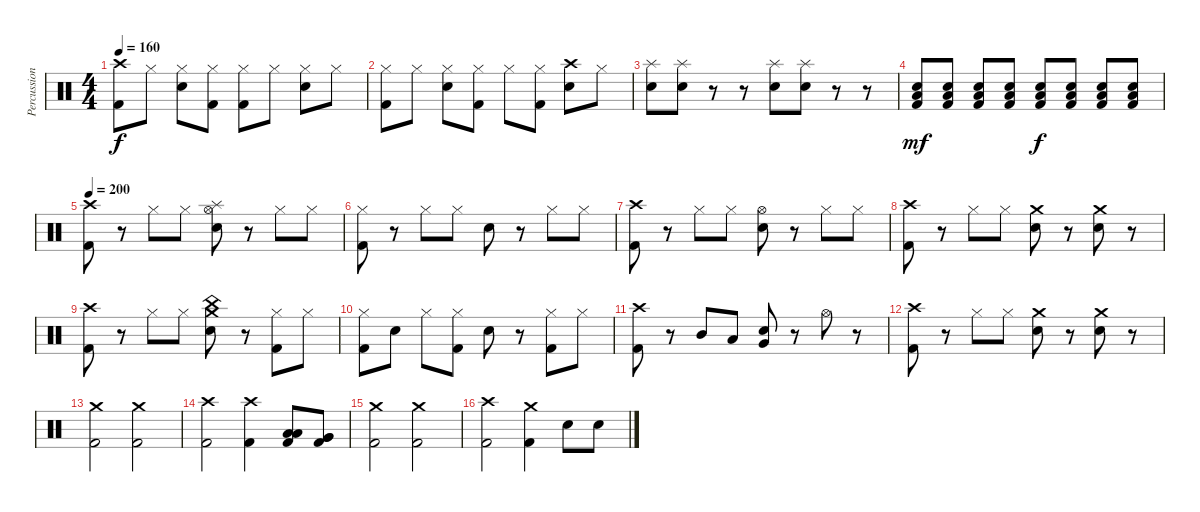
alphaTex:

\track ("Percussion" "Percussion") {instrument percussion}
\staff {score}
\articulation defaults
\ts (4 4)
\tempo 160
\clef neutral
\ks c
("Crash high (hit)" "Kick (hit) 2").8{dy f} "Hi-Hat (closed)".8 ("Hi-Hat (closed)" "Snare (hit) 2").8 ("Hi-Hat (closed)" "Kick (hit) 2").8 ("Hi-Hat (closed)" "Kick (hit) 2").8 "Hi-Hat (closed)".8 ("Hi-Hat (closed)" "Snare (hit) 2").8 "Hi-Hat (closed)".8 |
("Hi-Hat (closed)" "Kick (hit) 2").8 "Hi-Hat (closed)".8 ("Hi-Hat (closed)" "Snare (hit) 2").8 ("Hi-Hat (closed)" "Kick (hit) 2").8 "Hi-Hat (closed)".8 ("Hi-Hat (closed)" "Kick (hit) 2").8 ("Crash high (hit)" "Snare (hit) 2").8 "Hi-Hat (closed)".8 |
("Splash (hit)" "Snare (hit) 2").8 ("Splash (hit)" "Snare (hit) 2").8 r.8 r.8 ("Splash (hit)" "Snare (hit) 2").8 ("Splash (hit)" "Snare (hit) 2").8 r.8 r.8 |
("Low Floor Tom (hit)" "Snare (hit) 2" "Kick (hit) 2").8{dy mf} ("Low Floor Tom (hit)" "Snare (hit) 2" "Kick (hit) 2").8 ("Low Floor Tom (hit)" "Snare (hit) 2" "Kick (hit) 2").8 ("Low Floor Tom (hit)" "Snare (hit) 2" "Kick (hit) 2").8 ("Low Floor Tom (hit)" "Snare (hit) 2" "Kick (hit) 2").8{dy f} ("Low Floor Tom (hit)" "Snare (hit) 2" "Kick (hit) 2").8 ("Low Floor Tom (hit)" "Snare (hit) 2" "Kick (hit) 2").8 ("Low Floor Tom (hit)" "Snare (hit) 2" "Kick (hit) 2").8 |
\tempo 200
("Crash high (hit)" "Kick (hit) 2").8 r.8 "Hi-Hat (closed)".8 "Hi-Hat (closed)".8 ("Hi-Hat (open)" "Splash (hit)" "Snare (hit) 2").8 r.8 "Hi-Hat (closed)".8 "Hi-Hat (closed)".8 |
("Hi-Hat (closed)" "Kick (hit) 2").8 r.8 "Hi-Hat (closed)".8 "Hi-Hat (closed)".8 "Snare (hit) 2".8 r.8 "Hi-Hat (closed)".8 "Hi-Hat (closed)".8 |
("Crash high (hit)" "Kick (hit) 2").8 r.8 "Hi-Hat (closed)".8 "Hi-Hat (closed)".8 ("Hi-Hat (open)" "Snare (hit) 2").8 r.8 "Hi-Hat (closed)".8 "Hi-Hat (closed)".8 |
("Crash high (hit)" "Kick (hit) 2").8 r.8 "Hi-Hat (closed)".8 "Hi-Hat (closed)".8 ("Crash medium (hit)" "Snare (hit) 2").8 r.8 ("Crash medium (hit)" "Snare (hit) 2").8 r.8 |
("Crash high (hit)" "Kick (hit) 2").8 r.8 "Hi-Hat (closed)".8 "Hi-Hat (closed)".8 ("China (hit)" "Crash medium (hit)" "Snare (hit) 2").8 r.8 ("Hi-Hat (closed)" "Kick (hit) 2").8 "Hi-Hat (closed)".8 |
("Hi-Hat (closed)" "Kick (hit) 2").8 "Snare (hit) 2".8 "Hi-Hat (closed)".8 ("Hi-Hat (closed)" "Kick (hit) 2").8 "Snare (hit) 2".8 r.8 ("Hi-Hat (closed)" "Kick (hit) 2").8 "Hi-Hat (closed)".8 |
("Crash high (hit)" "Kick (hit) 2").8 r.8 "Mid Tom (hit)".8 "Low Tom (hit)".8 ("Very Low Tom (hit)" "Snare (hit) 2").8 r.8 "Hi-Hat (open)".8 r.8 |
("Crash high (hit)" "Kick (hit) 2").8 r.8 "Hi-Hat (closed)".8 "Hi-Hat (closed)".8 ("Crash medium (hit)" "Snare (hit) 2").8 r.8 ("Crash medium (hit)" "Snare (hit) 2").8 r.8 |
("Crash medium (hit)" "Kick (hit) 2").2 ("Crash medium (hit)" "Kick (hit) 2").2 |
("Crash high (hit)" "Kick (hit) 2").2 ("Crash high (hit)" "Kick (hit) 2").4 ("Low Tom (hit)" "Low Tom (hit)" "Kick (hit) 2").8 ("Very Low Tom (hit)" "Very Low Tom (hit)" "Kick (hit) 2").8 |
("Crash medium (hit)" "Kick (hit) 2").2 ("Crash medium (hit)" "Kick (hit) 2").2 |
("Crash high (hit)" "Kick (hit) 2").2 ("Crash medium (hit)" "Kick (hit) 2").4 "Snare (hit) 2".8 "Snare (hit) 2".8
